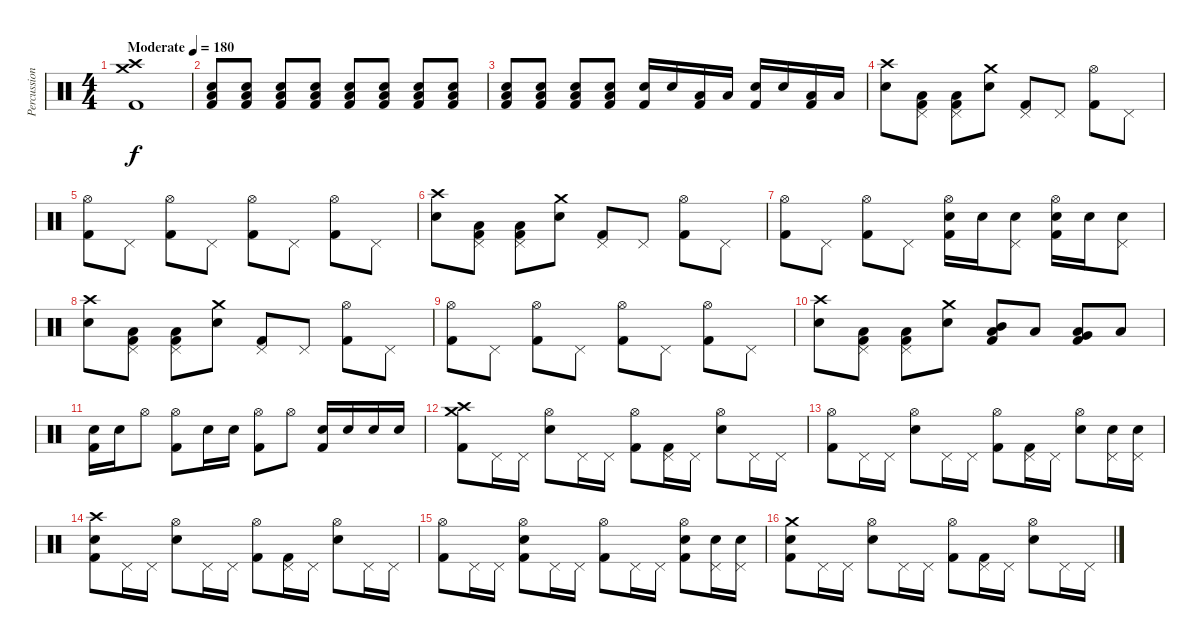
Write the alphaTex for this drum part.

\track ("Percussion" "Percussion") {instrument percussion}
\staff {score}
\articulation defaults
\ts (4 4)
\tempo (180 "Moderate")
\clef neutral
\ks c
("Crash medium (hit)" "Crash high (hit)" "Kick (hit) 2").1{dy f} |
("Electric Snare (hit)" "Low Floor Tom (hit)" "Kick (hit) 2").8 ("Electric Snare (hit)" "Low Floor Tom (hit)" "Kick (hit) 2").8 ("Electric Snare (hit)" "Low Floor Tom (hit)" "Kick (hit) 2").8 ("Electric Snare (hit)" "Low Floor Tom (hit)" "Kick (hit) 2").8 ("Electric Snare (hit)" "Low Floor Tom (hit)" "Kick (hit) 2").8 ("Electric Snare (hit)" "Low Floor Tom (hit)" "Kick (hit) 2").8 ("Electric Snare (hit)" "Low Floor Tom (hit)" "Kick (hit) 2").8 ("Electric Snare (hit)" "Low Floor Tom (hit)" "Kick (hit) 2").8 |
("Electric Snare (hit)" "Low Floor Tom (hit)" "Kick (hit) 2").8 ("Electric Snare (hit)" "Low Floor Tom (hit)" "Kick (hit) 2").8 ("Electric Snare (hit)" "Low Floor Tom (hit)" "Kick (hit) 2").8 ("Electric Snare (hit)" "Low Floor Tom (hit)" "Kick (hit) 2").8 ("Electric Snare (hit)" "Kick (hit) 2").16 "Electric Snare (hit)".16 ("Low Floor Tom (hit)" "Kick (hit) 2").16 "Low Floor Tom (hit)".16 ("Electric Snare (hit)" "Kick (hit) 2").16 "Electric Snare (hit)".16 ("Low Floor Tom (hit)" "Kick (hit) 2").16 "Low Floor Tom (hit)".16 |
("Crash high (hit)" "Electric Snare (hit)").8 ("Pedal Hi-Hat (hit)" "Low Floor Tom (hit)" "Kick (hit) 2").8 ("Pedal Hi-Hat (hit)" "Low Floor Tom (hit)" "Kick (hit) 2").8 ("Crash medium (hit)" "Electric Snare (hit)").8 ("Pedal Hi-Hat (hit)" "Kick (hit) 2").8 "Pedal Hi-Hat (hit)".8 ("Hi-Hat (open)" "Kick (hit) 2").8 "Pedal Hi-Hat (hit)".8 |
("Hi-Hat (open)" "Kick (hit) 2").8 "Pedal Hi-Hat (hit)".8 ("Hi-Hat (open)" "Kick (hit) 2").8 "Pedal Hi-Hat (hit)".8 ("Hi-Hat (open)" "Kick (hit) 2").8 "Pedal Hi-Hat (hit)".8 ("Hi-Hat (open)" "Kick (hit) 2").8 "Pedal Hi-Hat (hit)".8 |
("Crash high (hit)" "Electric Snare (hit)").8 ("Pedal Hi-Hat (hit)" "Low Floor Tom (hit)" "Kick (hit) 2").8 ("Pedal Hi-Hat (hit)" "Low Floor Tom (hit)" "Kick (hit) 2").8 ("Crash medium (hit)" "Electric Snare (hit)").8 ("Pedal Hi-Hat (hit)" "Kick (hit) 2").8 "Pedal Hi-Hat (hit)".8 ("Hi-Hat (open)" "Kick (hit) 2").8 "Pedal Hi-Hat (hit)".8 |
("Hi-Hat (open)" "Kick (hit) 2").8 "Pedal Hi-Hat (hit)".8 ("Hi-Hat (open)" "Kick (hit) 2").8 "Pedal Hi-Hat (hit)".8 ("Hi-Hat (open)" "Electric Snare (hit)" "Kick (hit) 2").16 "Electric Snare (hit)".16 ("Pedal Hi-Hat (hit)" "Electric Snare (hit)").8 ("Hi-Hat (open)" "Electric Snare (hit)" "Kick (hit) 2").16 "Electric Snare (hit)".16 ("Pedal Hi-Hat (hit)" "Electric Snare (hit)").8 |
("Crash high (hit)" "Electric Snare (hit)").8 ("Pedal Hi-Hat (hit)" "Low Floor Tom (hit)" "Kick (hit) 2").8 ("Pedal Hi-Hat (hit)" "Low Floor Tom (hit)" "Kick (hit) 2").8 ("Crash medium (hit)" "Electric Snare (hit)").8 ("Pedal Hi-Hat (hit)" "Kick (hit) 2").8 "Pedal Hi-Hat (hit)".8 ("Hi-Hat (open)" "Kick (hit) 2").8 "Pedal Hi-Hat (hit)".8 |
("Hi-Hat (open)" "Kick (hit) 2").8 "Pedal Hi-Hat (hit)".8 ("Hi-Hat (open)" "Kick (hit) 2").8 "Pedal Hi-Hat (hit)".8 ("Hi-Hat (open)" "Kick (hit) 2").8 "Pedal Hi-Hat (hit)".8 ("Hi-Hat (open)" "Kick (hit) 2").8 "Pedal Hi-Hat (hit)".8 |
("Crash high (hit)" "Electric Snare (hit)").8 ("Pedal Hi-Hat (hit)" "Low Floor Tom (hit)" "Kick (hit) 2").8 ("Pedal Hi-Hat (hit)" "Low Floor Tom (hit)" "Kick (hit) 2").8 ("Crash medium (hit)" "Electric Snare (hit)").8 ("Mid Tom (hit)" "Low Tom (hit)" "Kick (hit) 2").8 "Low Floor Tom (hit)".8 ("Low Tom (hit)" "Very Low Tom (hit)" "Kick (hit) 2").8 "Low Floor Tom (hit)".8 |
("Electric Snare (hit)" "Kick (hit) 2").16 "Electric Snare (hit)".16 "Hi-Hat (open)".8 ("Hi-Hat (open)" "Kick (hit) 2").8 "Electric Snare (hit)".16 "Electric Snare (hit)".16 ("Hi-Hat (open)" "Kick (hit) 2").8 "Hi-Hat (open)".8 ("Electric Snare (hit)" "Kick (hit) 2").16 "Electric Snare (hit)".16 "Electric Snare (hit)".16 "Electric Snare (hit)".16 |
("Crash high (hit)" "Crash medium (hit)" "Kick (hit) 2").8 "Pedal Hi-Hat (hit)".16 "Pedal Hi-Hat (hit)".16 ("Hi-Hat (open)" "Electric Snare (hit)").8 "Pedal Hi-Hat (hit)".16 "Pedal Hi-Hat (hit)".16 ("Hi-Hat (open)" "Kick (hit) 2").8 ("Pedal Hi-Hat (hit)" "Kick (hit) 2").16 "Pedal Hi-Hat (hit)".16 ("Hi-Hat (open)" "Electric Snare (hit)").8 "Pedal Hi-Hat (hit)".16 "Pedal Hi-Hat (hit)".16 |
("Hi-Hat (open)" "Kick (hit) 2").8 "Pedal Hi-Hat (hit)".16 "Pedal Hi-Hat (hit)".16 ("Hi-Hat (open)" "Electric Snare (hit)").8 "Pedal Hi-Hat (hit)".16 "Pedal Hi-Hat (hit)".16 ("Hi-Hat (open)" "Kick (hit) 2").8 ("Pedal Hi-Hat (hit)" "Kick (hit) 2").16 "Pedal Hi-Hat (hit)".16 ("Hi-Hat (open)" "Electric Snare (hit)").8 ("Pedal Hi-Hat (hit)" "Electric Snare (hit)").16 ("Pedal Hi-Hat (hit)" "Electric Snare (hit)").16 |
("Crash high (hit)" "Electric Snare (hit)" "Kick (hit) 2").8 "Pedal Hi-Hat (hit)".16 "Pedal Hi-Hat (hit)".16 ("Hi-Hat (open)" "Electric Snare (hit)").8 "Pedal Hi-Hat (hit)".16 "Pedal Hi-Hat (hit)".16 ("Hi-Hat (open)" "Kick (hit) 2").8 ("Pedal Hi-Hat (hit)" "Kick (hit) 2").16 "Pedal Hi-Hat (hit)".16 ("Hi-Hat (open)" "Electric Snare (hit)").8 "Pedal Hi-Hat (hit)".16 "Pedal Hi-Hat (hit)".16 |
("Hi-Hat (open)" "Kick (hit) 2").8 "Pedal Hi-Hat (hit)".16 "Pedal Hi-Hat (hit)".16 ("Hi-Hat (open)" "Electric Snare (hit)" "Kick (hit) 2").8 "Pedal Hi-Hat (hit)".16 "Pedal Hi-Hat (hit)".16 ("Hi-Hat (open)" "Kick (hit) 2").8 "Pedal Hi-Hat (hit)".16 "Pedal Hi-Hat (hit)".16 ("Hi-Hat (open)" "Electric Snare (hit)" "Kick (hit) 2").8 ("Pedal Hi-Hat (hit)" "Electric Snare (hit)").16 ("Pedal Hi-Hat (hit)" "Electric Snare (hit)").16 |
("Crash medium (hit)" "Electric Snare (hit)" "Kick (hit) 2").8 "Pedal Hi-Hat (hit)".16 "Pedal Hi-Hat (hit)".16 ("Hi-Hat (open)" "Electric Snare (hit)").8 "Pedal Hi-Hat (hit)".16 "Pedal Hi-Hat (hit)".16 ("Hi-Hat (open)" "Kick (hit) 2").8 ("Pedal Hi-Hat (hit)" "Kick (hit) 2").16 "Pedal Hi-Hat (hit)".16 ("Hi-Hat (open)" "Electric Snare (hit)").8 "Pedal Hi-Hat (hit)".16 "Pedal Hi-Hat (hit)".16
